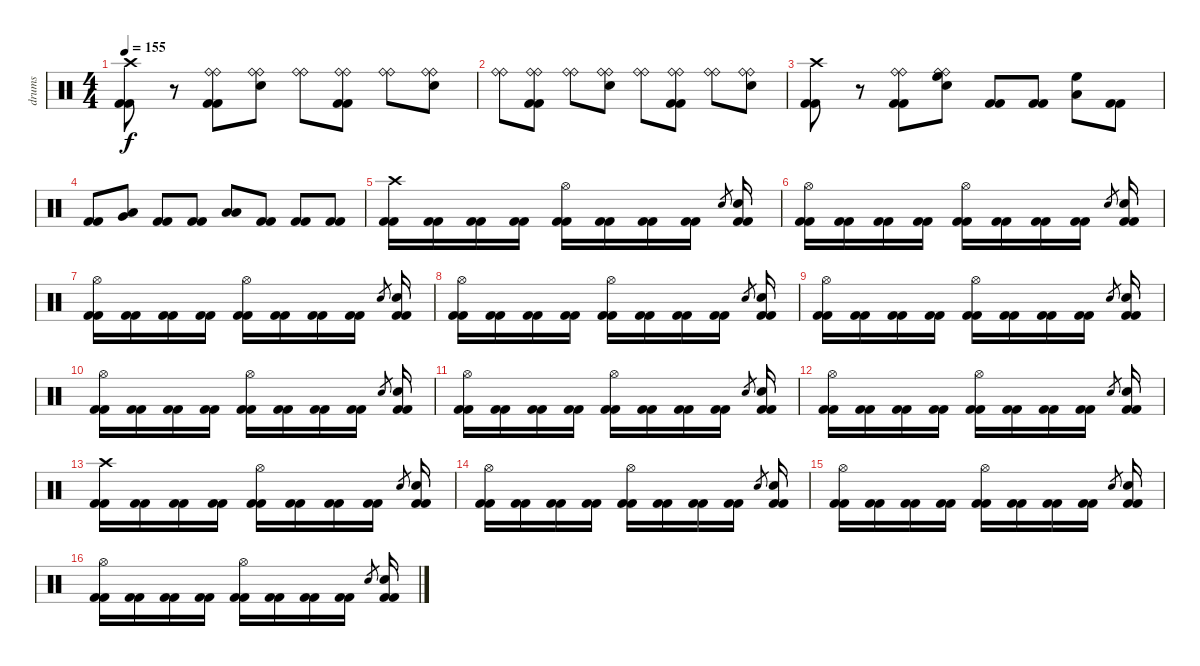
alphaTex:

\track ("drums" "drums") {instrument percussion}
\staff {score}
\articulation defaults
\ts (4 4)
\tempo 155
\clef neutral
\ks c
("Crash high (hit)" "Kick (hit) 2" "Kick (hit) 2").8{dy f} r.8 ("Ride (bell)" "Ride (bell)" "Kick (hit) 2" "Kick (hit) 2").8 ("Ride (bell)" "Ride (bell)" "Electric Snare (hit)").8 ("Ride (bell)" "Ride (bell)").8 ("Ride (bell)" "Ride (bell)" "Kick (hit) 2" "Kick (hit) 2").8 ("Ride (bell)" "Ride (bell)").8 ("Ride (bell)" "Ride (bell)" "Electric Snare (hit)").8 |
("Ride (bell)" "Ride (bell)").8 ("Ride (bell)" "Ride (bell)" "Kick (hit) 2" "Kick (hit) 2").8 ("Ride (bell)" "Ride (bell)").8 ("Ride (bell)" "Ride (bell)" "Electric Snare (hit)").8 ("Ride (bell)" "Ride (bell)").8 ("Ride (bell)" "Ride (bell)" "Kick (hit) 2" "Kick (hit) 2").8 ("Ride (bell)" "Ride (bell)").8 ("Ride (bell)" "Ride (bell)" "Electric Snare (hit)").8 |
("Crash high (hit)" "Kick (hit) 2" "Kick (hit) 2").8 r.8 ("Ride (bell)" "Ride (bell)" "Kick (hit) 2" "Kick (hit) 2").8 ("Ride (bell)" "Ride (bell)" "Electric Snare (hit)" "High Floor Tom (hit)").8 ("Kick (hit) 2" "Kick (hit) 2").8 ("Kick (hit) 2" "Kick (hit) 2").8 ("Low Tom (hit)" "High Floor Tom (hit)").8 ("Kick (hit) 2" "Kick (hit) 2").8 |
("Kick (hit) 2" "Kick (hit) 2").8 ("Very Low Tom (hit)" "Low Tom (hit)").8 ("Kick (hit) 2" "Kick (hit) 2").8 ("Kick (hit) 2" "Kick (hit) 2").8 ("Low Tom (hit)" "Low Floor Tom (hit)").8 ("Kick (hit) 2" "Kick (hit) 2").8 ("Kick (hit) 2" "Kick (hit) 2").8 ("Kick (hit) 2" "Kick (hit) 2").8 |
("Crash high (hit)" "Kick (hit) 2" "Kick (hit) 2").16 ("Kick (hit) 2" "Kick (hit) 2").16 ("Kick (hit) 2" "Kick (hit) 2").16 ("Kick (hit) 2" "Kick (hit) 2").16 ("Hi-Hat (open)" "Kick (hit) 2" "Kick (hit) 2").16 ("Kick (hit) 2" "Kick (hit) 2").16 ("Kick (hit) 2" "Kick (hit) 2").16 ("Kick (hit) 2" "Kick (hit) 2").16 "Electric Snare (hit)".8{gr} ("Electric Snare (hit)" "Kick (hit) 2" "Kick (hit) 2").16 |
("Hi-Hat (open)" "Kick (hit) 2" "Kick (hit) 2").16 ("Kick (hit) 2" "Kick (hit) 2").16 ("Kick (hit) 2" "Kick (hit) 2").16 ("Kick (hit) 2" "Kick (hit) 2").16 ("Hi-Hat (open)" "Kick (hit) 2" "Kick (hit) 2").16 ("Kick (hit) 2" "Kick (hit) 2").16 ("Kick (hit) 2" "Kick (hit) 2").16 ("Kick (hit) 2" "Kick (hit) 2").16 "Electric Snare (hit)".8{gr} ("Electric Snare (hit)" "Kick (hit) 2" "Kick (hit) 2").16 |
("Hi-Hat (open)" "Kick (hit) 2" "Kick (hit) 2").16 ("Kick (hit) 2" "Kick (hit) 2").16 ("Kick (hit) 2" "Kick (hit) 2").16 ("Kick (hit) 2" "Kick (hit) 2").16 ("Hi-Hat (open)" "Kick (hit) 2" "Kick (hit) 2").16 ("Kick (hit) 2" "Kick (hit) 2").16 ("Kick (hit) 2" "Kick (hit) 2").16 ("Kick (hit) 2" "Kick (hit) 2").16 "Electric Snare (hit)".8{gr} ("Electric Snare (hit)" "Kick (hit) 2" "Kick (hit) 2").16 |
("Hi-Hat (open)" "Kick (hit) 2" "Kick (hit) 2").16 ("Kick (hit) 2" "Kick (hit) 2").16 ("Kick (hit) 2" "Kick (hit) 2").16 ("Kick (hit) 2" "Kick (hit) 2").16 ("Hi-Hat (open)" "Kick (hit) 2" "Kick (hit) 2").16 ("Kick (hit) 2" "Kick (hit) 2").16 ("Kick (hit) 2" "Kick (hit) 2").16 ("Kick (hit) 2" "Kick (hit) 2").16 "Electric Snare (hit)".8{gr} ("Electric Snare (hit)" "Kick (hit) 2" "Kick (hit) 2").16 |
("Hi-Hat (open)" "Kick (hit) 2" "Kick (hit) 2").16 ("Kick (hit) 2" "Kick (hit) 2").16 ("Kick (hit) 2" "Kick (hit) 2").16 ("Kick (hit) 2" "Kick (hit) 2").16 ("Hi-Hat (open)" "Kick (hit) 2" "Kick (hit) 2").16 ("Kick (hit) 2" "Kick (hit) 2").16 ("Kick (hit) 2" "Kick (hit) 2").16 ("Kick (hit) 2" "Kick (hit) 2").16 "Electric Snare (hit)".8{gr} ("Electric Snare (hit)" "Kick (hit) 2" "Kick (hit) 2").16 |
("Hi-Hat (open)" "Kick (hit) 2" "Kick (hit) 2").16 ("Kick (hit) 2" "Kick (hit) 2").16 ("Kick (hit) 2" "Kick (hit) 2").16 ("Kick (hit) 2" "Kick (hit) 2").16 ("Hi-Hat (open)" "Kick (hit) 2" "Kick (hit) 2").16 ("Kick (hit) 2" "Kick (hit) 2").16 ("Kick (hit) 2" "Kick (hit) 2").16 ("Kick (hit) 2" "Kick (hit) 2").16 "Electric Snare (hit)".8{gr} ("Electric Snare (hit)" "Kick (hit) 2" "Kick (hit) 2").16 |
("Hi-Hat (open)" "Kick (hit) 2" "Kick (hit) 2").16 ("Kick (hit) 2" "Kick (hit) 2").16 ("Kick (hit) 2" "Kick (hit) 2").16 ("Kick (hit) 2" "Kick (hit) 2").16 ("Hi-Hat (open)" "Kick (hit) 2" "Kick (hit) 2").16 ("Kick (hit) 2" "Kick (hit) 2").16 ("Kick (hit) 2" "Kick (hit) 2").16 ("Kick (hit) 2" "Kick (hit) 2").16 "Electric Snare (hit)".8{gr} ("Electric Snare (hit)" "Kick (hit) 2" "Kick (hit) 2").16 |
("Hi-Hat (open)" "Kick (hit) 2" "Kick (hit) 2").16 ("Kick (hit) 2" "Kick (hit) 2").16 ("Kick (hit) 2" "Kick (hit) 2").16 ("Kick (hit) 2" "Kick (hit) 2").16 ("Hi-Hat (open)" "Kick (hit) 2" "Kick (hit) 2").16 ("Kick (hit) 2" "Kick (hit) 2").16 ("Kick (hit) 2" "Kick (hit) 2").16 ("Kick (hit) 2" "Kick (hit) 2").16 "Electric Snare (hit)".8{gr} ("Electric Snare (hit)" "Kick (hit) 2" "Kick (hit) 2").16 |
("Crash high (hit)" "Kick (hit) 2" "Kick (hit) 2").16 ("Kick (hit) 2" "Kick (hit) 2").16 ("Kick (hit) 2" "Kick (hit) 2").16 ("Kick (hit) 2" "Kick (hit) 2").16 ("Hi-Hat (open)" "Kick (hit) 2" "Kick (hit) 2").16 ("Kick (hit) 2" "Kick (hit) 2").16 ("Kick (hit) 2" "Kick (hit) 2").16 ("Kick (hit) 2" "Kick (hit) 2").16 "Electric Snare (hit)".8{gr} ("Electric Snare (hit)" "Kick (hit) 2" "Kick (hit) 2").16 |
("Hi-Hat (open)" "Kick (hit) 2" "Kick (hit) 2").16 ("Kick (hit) 2" "Kick (hit) 2").16 ("Kick (hit) 2" "Kick (hit) 2").16 ("Kick (hit) 2" "Kick (hit) 2").16 ("Hi-Hat (open)" "Kick (hit) 2" "Kick (hit) 2").16 ("Kick (hit) 2" "Kick (hit) 2").16 ("Kick (hit) 2" "Kick (hit) 2").16 ("Kick (hit) 2" "Kick (hit) 2").16 "Electric Snare (hit)".8{gr} ("Electric Snare (hit)" "Kick (hit) 2" "Kick (hit) 2").16 |
("Hi-Hat (open)" "Kick (hit) 2" "Kick (hit) 2").16 ("Kick (hit) 2" "Kick (hit) 2").16 ("Kick (hit) 2" "Kick (hit) 2").16 ("Kick (hit) 2" "Kick (hit) 2").16 ("Hi-Hat (open)" "Kick (hit) 2" "Kick (hit) 2").16 ("Kick (hit) 2" "Kick (hit) 2").16 ("Kick (hit) 2" "Kick (hit) 2").16 ("Kick (hit) 2" "Kick (hit) 2").16 "Electric Snare (hit)".8{gr} ("Electric Snare (hit)" "Kick (hit) 2" "Kick (hit) 2").16 |
("Hi-Hat (open)" "Kick (hit) 2" "Kick (hit) 2").16 ("Kick (hit) 2" "Kick (hit) 2").16 ("Kick (hit) 2" "Kick (hit) 2").16 ("Kick (hit) 2" "Kick (hit) 2").16 ("Hi-Hat (open)" "Kick (hit) 2" "Kick (hit) 2").16 ("Kick (hit) 2" "Kick (hit) 2").16 ("Kick (hit) 2" "Kick (hit) 2").16 ("Kick (hit) 2" "Kick (hit) 2").16 "Electric Snare (hit)".8{gr} ("Electric Snare (hit)" "Kick (hit) 2" "Kick (hit) 2").16
